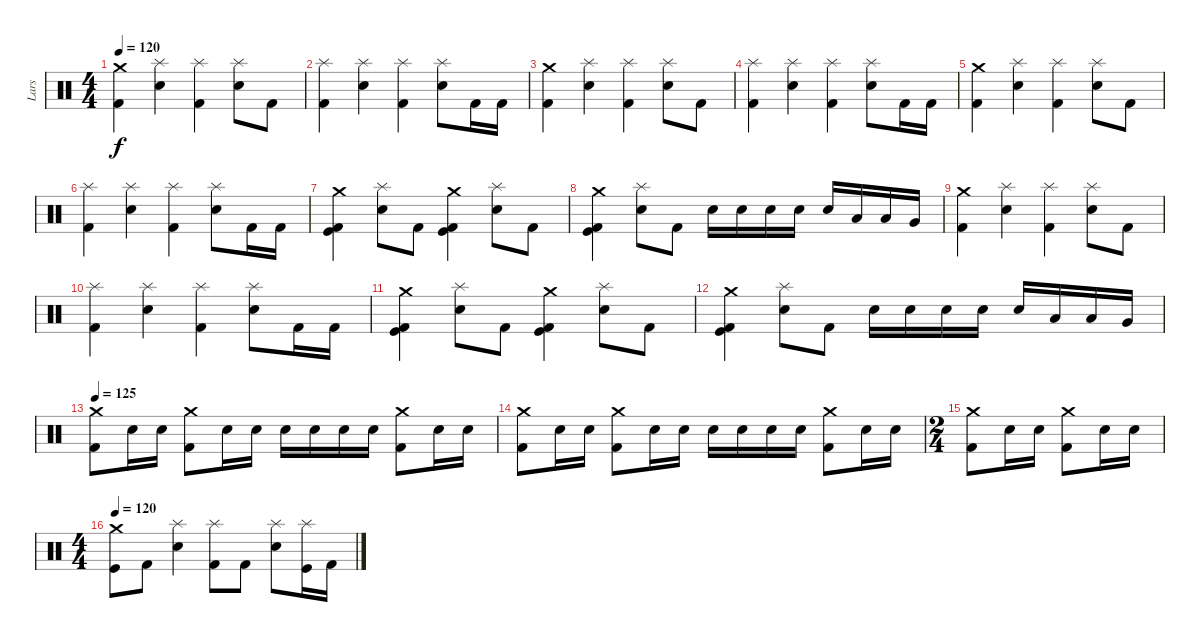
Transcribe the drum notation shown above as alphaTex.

\track ("Lars" "Lars") {instrument percussion}
\staff {score}
\articulation defaults
\ts (4 4)
\tempo 120
\clef neutral
\ks c
("Crash medium (hit)" "Kick (hit) 2").4{dy f} ("Splash (hit)" "Snare (hit) 2").4 ("Splash (hit)" "Kick (hit) 2").4 ("Splash (hit)" "Snare (hit) 2").8 "Kick (hit) 2".8 |
("Splash (hit)" "Kick (hit) 2").4 ("Splash (hit)" "Snare (hit) 2").4 ("Splash (hit)" "Kick (hit) 2").4 ("Splash (hit)" "Snare (hit) 2").8 "Kick (hit) 2".16 "Kick (hit) 2".16 |
("Crash medium (hit)" "Kick (hit) 2").4 ("Splash (hit)" "Snare (hit) 2").4 ("Splash (hit)" "Kick (hit) 2").4 ("Splash (hit)" "Snare (hit) 2").8 "Kick (hit) 2".8 |
("Splash (hit)" "Kick (hit) 2").4 ("Splash (hit)" "Snare (hit) 2").4 ("Splash (hit)" "Kick (hit) 2").4 ("Splash (hit)" "Snare (hit) 2").8 "Kick (hit) 2".16 "Kick (hit) 2".16 |
("Crash medium (hit)" "Kick (hit) 2").4 ("Splash (hit)" "Snare (hit) 2").4 ("Splash (hit)" "Kick (hit) 2").4 ("Splash (hit)" "Snare (hit) 2").8 "Kick (hit) 2".8 |
("Splash (hit)" "Kick (hit) 2").4 ("Splash (hit)" "Snare (hit) 2").4 ("Splash (hit)" "Kick (hit) 2").4 ("Splash (hit)" "Snare (hit) 2").8 "Kick (hit) 2".16 "Kick (hit) 2".16 |
("Crash medium (hit)" "Kick (hit) 2" "Kick (hit)").4 ("Splash (hit)" "Snare (hit) 2").8 "Kick (hit) 2".8 ("Crash medium (hit)" "Kick (hit) 2" "Kick (hit)").4 ("Splash (hit)" "Snare (hit) 2").8 "Kick (hit) 2".8 |
("Crash medium (hit)" "Kick (hit) 2" "Kick (hit)").4 ("Splash (hit)" "Snare (hit) 2").8 "Kick (hit) 2".8 "Snare (hit) 2".16 "Snare (hit) 2".16 "Snare (hit) 2".16 "Snare (hit) 2".16 "Snare (hit) 2".16 "Low Tom (hit)".16 "Low Tom (hit)".16 "Very Low Tom (hit)".16 |
("Crash medium (hit)" "Kick (hit) 2").4 ("Splash (hit)" "Snare (hit) 2").4 ("Splash (hit)" "Kick (hit) 2").4 ("Splash (hit)" "Snare (hit) 2").8 "Kick (hit) 2".8 |
("Splash (hit)" "Kick (hit) 2").4 ("Splash (hit)" "Snare (hit) 2").4 ("Splash (hit)" "Kick (hit) 2").4 ("Splash (hit)" "Snare (hit) 2").8 "Kick (hit) 2".16 "Kick (hit) 2".16 |
("Crash medium (hit)" "Kick (hit) 2" "Kick (hit)").4 ("Splash (hit)" "Snare (hit) 2").8 "Kick (hit) 2".8 ("Crash medium (hit)" "Kick (hit) 2" "Kick (hit)").4 ("Splash (hit)" "Snare (hit) 2").8 "Kick (hit) 2".8 |
("Crash medium (hit)" "Kick (hit) 2" "Kick (hit)").4 ("Splash (hit)" "Snare (hit) 2").8 "Kick (hit) 2".8 "Snare (hit) 2".16 "Snare (hit) 2".16 "Snare (hit) 2".16 "Snare (hit) 2".16 "Snare (hit) 2".16 "Low Tom (hit)".16 "Low Tom (hit)".16 "Very Low Tom (hit)".16 |
\tempo 125
("Crash medium (hit)" "Kick (hit) 2").8 "Snare (hit) 2".16 "Snare (hit) 2".16 ("Crash medium (hit)" "Kick (hit) 2").8 "Snare (hit) 2".16 "Snare (hit) 2".16 "Snare (hit) 2".16 "Snare (hit) 2".16 "Snare (hit) 2".16 "Snare (hit) 2".16 ("Crash medium (hit)" "Kick (hit) 2").8 "Snare (hit) 2".16 "Snare (hit) 2".16 |
("Crash medium (hit)" "Kick (hit) 2").8 "Snare (hit) 2".16 "Snare (hit) 2".16 ("Crash medium (hit)" "Kick (hit) 2").8 "Snare (hit) 2".16 "Snare (hit) 2".16 "Snare (hit) 2".16 "Snare (hit) 2".16 "Snare (hit) 2".16 "Snare (hit) 2".16 ("Crash medium (hit)" "Kick (hit) 2").8 "Snare (hit) 2".16 "Snare (hit) 2".16 |
\ts (2 4)
("Crash medium (hit)" "Kick (hit) 2").8 "Snare (hit) 2".16 "Snare (hit) 2".16 ("Crash medium (hit)" "Kick (hit) 2").8 "Snare (hit) 2".16 "Snare (hit) 2".16 |
\ts (4 4)
\tempo 120
("Crash medium (hit)" "Kick (hit)").8 "Kick (hit) 2".8 ("Splash (hit)" "Snare (hit) 2").4 ("Splash (hit)" "Kick (hit) 2").8 "Kick (hit) 2".8 ("Splash (hit)" "Snare (hit) 2").8 ("Splash (hit)" "Kick (hit)").16 "Kick (hit) 2".16
